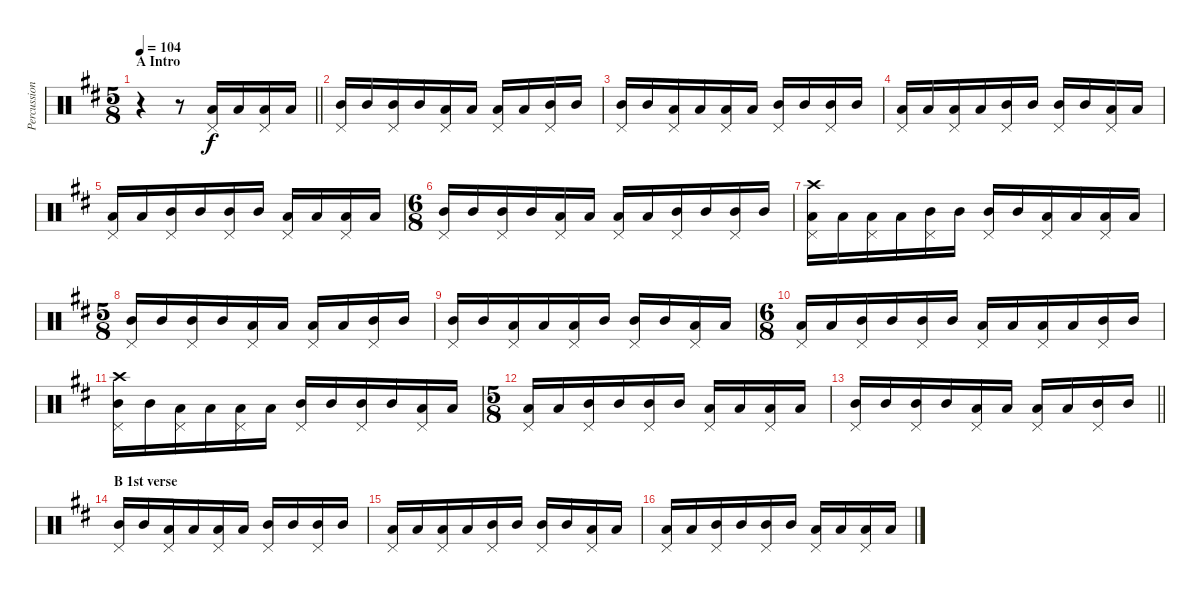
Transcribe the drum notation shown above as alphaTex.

\track ("Percussion" "Percussion") {instrument percussion}
\staff {score}
\articulation defaults
\ts (5 8)
\section ("" "A Intro")
\tempo 104
\clef neutral
\barLineRight lightlight
\ks d
r.4{dy f} r.8 ("Pedal Hi-Hat (hit)" "Low Tom (hit)").16 "Low Tom (hit)".16 ("Pedal Hi-Hat (hit)" "Low Tom (hit)").16 "Low Tom (hit)".16 |
("Pedal Hi-Hat (hit)" "Mid Tom (hit)").16 "Mid Tom (hit)".16 ("Pedal Hi-Hat (hit)" "Mid Tom (hit)").16 "Mid Tom (hit)".16 ("Pedal Hi-Hat (hit)" "Low Tom (hit)").16 "Low Tom (hit)".16 ("Pedal Hi-Hat (hit)" "Low Tom (hit)").16 "Low Tom (hit)".16 ("Pedal Hi-Hat (hit)" "Mid Tom (hit)").16 "Mid Tom (hit)".16 |
("Pedal Hi-Hat (hit)" "Mid Tom (hit)").16 "Mid Tom (hit)".16 ("Pedal Hi-Hat (hit)" "Low Tom (hit)").16 "Low Tom (hit)".16 ("Pedal Hi-Hat (hit)" "Low Tom (hit)").16 "Low Tom (hit)".16 ("Pedal Hi-Hat (hit)" "Mid Tom (hit)").16 "Mid Tom (hit)".16 ("Pedal Hi-Hat (hit)" "Mid Tom (hit)").16 "Mid Tom (hit)".16 |
("Pedal Hi-Hat (hit)" "Low Tom (hit)").16 "Low Tom (hit)".16 ("Pedal Hi-Hat (hit)" "Low Tom (hit)").16 "Low Tom (hit)".16 ("Pedal Hi-Hat (hit)" "Mid Tom (hit)").16 "Mid Tom (hit)".16 ("Pedal Hi-Hat (hit)" "Mid Tom (hit)").16 "Mid Tom (hit)".16 ("Pedal Hi-Hat (hit)" "Low Tom (hit)").16 "Low Tom (hit)".16 |
("Pedal Hi-Hat (hit)" "Low Tom (hit)").16 "Low Tom (hit)".16 ("Pedal Hi-Hat (hit)" "Mid Tom (hit)").16 "Mid Tom (hit)".16 ("Pedal Hi-Hat (hit)" "Mid Tom (hit)").16 "Mid Tom (hit)".16 ("Pedal Hi-Hat (hit)" "Low Tom (hit)").16 "Low Tom (hit)".16 ("Pedal Hi-Hat (hit)" "Low Tom (hit)").16 "Low Tom (hit)".16 |
\ts (6 8)
("Pedal Hi-Hat (hit)" "Mid Tom (hit)").16 "Mid Tom (hit)".16 ("Pedal Hi-Hat (hit)" "Mid Tom (hit)").16 "Mid Tom (hit)".16 ("Pedal Hi-Hat (hit)" "Low Tom (hit)").16 "Low Tom (hit)".16 ("Pedal Hi-Hat (hit)" "Low Tom (hit)").16 "Low Tom (hit)".16 ("Pedal Hi-Hat (hit)" "Mid Tom (hit)").16 "Mid Tom (hit)".16 ("Pedal Hi-Hat (hit)" "Mid Tom (hit)").16 "Mid Tom (hit)".16 |
("Pedal Hi-Hat (hit)" "Crash high (hit)" "Low Tom (hit)").16 "Low Tom (hit)".16 ("Pedal Hi-Hat (hit)" "Low Tom (hit)").16 "Low Tom (hit)".16 ("Pedal Hi-Hat (hit)" "Mid Tom (hit)").16 "Mid Tom (hit)".16 ("Pedal Hi-Hat (hit)" "Mid Tom (hit)").16 "Mid Tom (hit)".16 ("Pedal Hi-Hat (hit)" "Low Tom (hit)").16 "Low Tom (hit)".16 ("Pedal Hi-Hat (hit)" "Low Tom (hit)").16 "Low Tom (hit)".16 |
\ts (5 8)
("Pedal Hi-Hat (hit)" "Mid Tom (hit)").16 "Mid Tom (hit)".16 ("Pedal Hi-Hat (hit)" "Mid Tom (hit)").16 "Mid Tom (hit)".16 ("Pedal Hi-Hat (hit)" "Low Tom (hit)").16 "Low Tom (hit)".16 ("Pedal Hi-Hat (hit)" "Low Tom (hit)").16 "Low Tom (hit)".16 ("Pedal Hi-Hat (hit)" "Mid Tom (hit)").16 "Mid Tom (hit)".16 |
("Pedal Hi-Hat (hit)" "Mid Tom (hit)").16 "Mid Tom (hit)".16 ("Pedal Hi-Hat (hit)" "Low Tom (hit)").16 "Low Tom (hit)".16 ("Pedal Hi-Hat (hit)" "Low Tom (hit)").16 "Mid Tom (hit)".16 ("Pedal Hi-Hat (hit)" "Mid Tom (hit)").16 "Mid Tom (hit)".16 ("Pedal Hi-Hat (hit)" "Low Tom (hit)").16 "Low Tom (hit)".16 |
\ts (6 8)
("Pedal Hi-Hat (hit)" "Low Tom (hit)").16 "Low Tom (hit)".16 ("Pedal Hi-Hat (hit)" "Mid Tom (hit)").16 "Mid Tom (hit)".16 ("Pedal Hi-Hat (hit)" "Mid Tom (hit)").16 "Mid Tom (hit)".16 ("Pedal Hi-Hat (hit)" "Low Tom (hit)").16 "Low Tom (hit)".16 ("Pedal Hi-Hat (hit)" "Low Tom (hit)").16 "Low Tom (hit)".16 ("Pedal Hi-Hat (hit)" "Mid Tom (hit)").16 "Mid Tom (hit)".16 |
("Pedal Hi-Hat (hit)" "Crash high (hit)" "Mid Tom (hit)").16 "Mid Tom (hit)".16 ("Pedal Hi-Hat (hit)" "Low Tom (hit)").16 "Low Tom (hit)".16 ("Pedal Hi-Hat (hit)" "Low Tom (hit)").16 "Low Tom (hit)".16 ("Pedal Hi-Hat (hit)" "Mid Tom (hit)").16 "Mid Tom (hit)".16 ("Pedal Hi-Hat (hit)" "Mid Tom (hit)").16 "Mid Tom (hit)".16 ("Pedal Hi-Hat (hit)" "Low Tom (hit)").16 "Low Tom (hit)".16 |
\ts (5 8)
("Pedal Hi-Hat (hit)" "Low Tom (hit)").16 "Low Tom (hit)".16 ("Pedal Hi-Hat (hit)" "Mid Tom (hit)").16 "Mid Tom (hit)".16 ("Pedal Hi-Hat (hit)" "Mid Tom (hit)").16 "Mid Tom (hit)".16 ("Pedal Hi-Hat (hit)" "Low Tom (hit)").16 "Low Tom (hit)".16 ("Pedal Hi-Hat (hit)" "Low Tom (hit)").16 "Low Tom (hit)".16 |
\barLineRight lightlight
("Pedal Hi-Hat (hit)" "Mid Tom (hit)").16 "Mid Tom (hit)".16 ("Pedal Hi-Hat (hit)" "Mid Tom (hit)").16 "Mid Tom (hit)".16 ("Pedal Hi-Hat (hit)" "Low Tom (hit)").16 "Low Tom (hit)".16 ("Pedal Hi-Hat (hit)" "Low Tom (hit)").16 "Low Tom (hit)".16 ("Pedal Hi-Hat (hit)" "Mid Tom (hit)").16 "Mid Tom (hit)".16 |
\section ("" "B 1st verse")
("Pedal Hi-Hat (hit)" "Mid Tom (hit)").16 "Mid Tom (hit)".16 ("Pedal Hi-Hat (hit)" "Low Tom (hit)").16 "Low Tom (hit)".16 ("Pedal Hi-Hat (hit)" "Low Tom (hit)").16 "Low Tom (hit)".16 ("Pedal Hi-Hat (hit)" "Mid Tom (hit)").16 "Mid Tom (hit)".16 ("Pedal Hi-Hat (hit)" "Mid Tom (hit)").16 "Mid Tom (hit)".16 |
("Pedal Hi-Hat (hit)" "Low Tom (hit)").16 "Low Tom (hit)".16 ("Pedal Hi-Hat (hit)" "Low Tom (hit)").16 "Low Tom (hit)".16 ("Pedal Hi-Hat (hit)" "Mid Tom (hit)").16 "Mid Tom (hit)".16 ("Pedal Hi-Hat (hit)" "Mid Tom (hit)").16 "Mid Tom (hit)".16 ("Pedal Hi-Hat (hit)" "Low Tom (hit)").16 "Low Tom (hit)".16 |
("Pedal Hi-Hat (hit)" "Low Tom (hit)").16 "Low Tom (hit)".16 ("Pedal Hi-Hat (hit)" "Mid Tom (hit)").16 "Mid Tom (hit)".16 ("Pedal Hi-Hat (hit)" "Mid Tom (hit)").16 "Mid Tom (hit)".16 ("Pedal Hi-Hat (hit)" "Low Tom (hit)").16 "Low Tom (hit)".16 ("Pedal Hi-Hat (hit)" "Low Tom (hit)").16 "Low Tom (hit)".16
